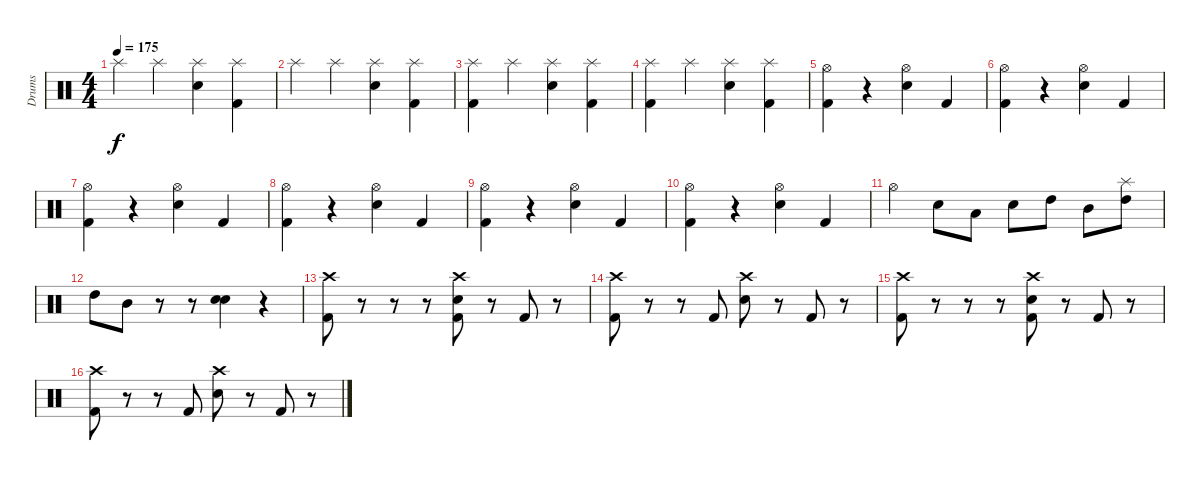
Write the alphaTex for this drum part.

\track ("Drums" "Drums") {instrument percussion}
\staff {score}
\articulation defaults
\ts (4 4)
\tempo 175
\clef neutral
\ks c "Splash (hit)".4{dy f} "Splash (hit)".4
("Splash (hit)" "Electric Snare (hit)").4 ("Splash (hit)" "Kick (hit) 2").4 |
"Splash (hit)".4 "Splash (hit)".4 ("Splash (hit)" "Electric Snare (hit)").4 ("Splash (hit)" "Kick (hit) 2").4 |
("Splash (hit)" "Kick (hit) 2").4 "Splash (hit)".4 ("Splash (hit)" "Electric Snare (hit)").4 ("Splash (hit)" "Kick (hit) 2").4 |
("Splash (hit)" "Kick (hit) 2").4 "Splash (hit)".4 ("Splash (hit)" "Electric Snare (hit)").4 ("Splash (hit)" "Kick (hit) 2").4 |
("Hi-Hat (open)" "Kick (hit) 2").4 r.4 ("Hi-Hat (open)" "Electric Snare (hit)").4 "Kick (hit) 2".4 |
("Hi-Hat (open)" "Kick (hit) 2").4 r.4 ("Hi-Hat (open)" "Electric Snare (hit)").4 "Kick (hit) 2".4 |
("Hi-Hat (open)" "Kick (hit) 2").4 r.4 ("Hi-Hat (open)" "Electric Snare (hit)").4 "Kick (hit) 2".4 |
("Hi-Hat (open)" "Kick (hit) 2").4 r.4 ("Hi-Hat (open)" "Electric Snare (hit)").4 "Kick (hit) 2".4 |
("Hi-Hat (open)" "Kick (hit) 2").4 r.4 ("Hi-Hat (open)" "Electric Snare (hit)").4 "Kick (hit) 2".4 |
("Hi-Hat (open)" "Kick (hit) 2").4 r.4 ("Hi-Hat (open)" "Electric Snare (hit)").4 "Kick (hit) 2".4 |
"Hi-Hat (open)".4 "Electric Snare (hit)".8 "Low Tom (hit)".8 "Snare (hit) 2".8 "High Tom (hit)".8 "Mid Tom (hit)".8 ("Splash (hit)" "High Tom (hit)").8 |
"High Tom (hit)".8 "Mid Tom (hit)".8 r.8 r.8 ("Electric Snare (hit)" "Snare (hit) 2").4 r.4 |
("Crash high (hit)" "Kick (hit) 2").8 r.8 r.8 r.8 ("Crash high (hit)" "Electric Snare (hit)" "Kick (hit) 2").8 r.8 "Kick (hit) 2".8 r.8 |
("Crash high (hit)" "Kick (hit) 2").8 r.8 r.8 "Kick (hit) 2".8 ("Crash high (hit)" "Electric Snare (hit)").8 r.8 "Kick (hit) 2".8 r.8 |
("Crash high (hit)" "Kick (hit) 2").8 r.8 r.8 r.8 ("Crash high (hit)" "Electric Snare (hit)" "Kick (hit) 2").8 r.8 "Kick (hit) 2".8 r.8 |
("Crash high (hit)" "Kick (hit) 2").8 r.8 r.8 "Kick (hit) 2".8 ("Crash high (hit)" "Electric Snare (hit)").8 r.8 "Kick (hit) 2".8 r.8
